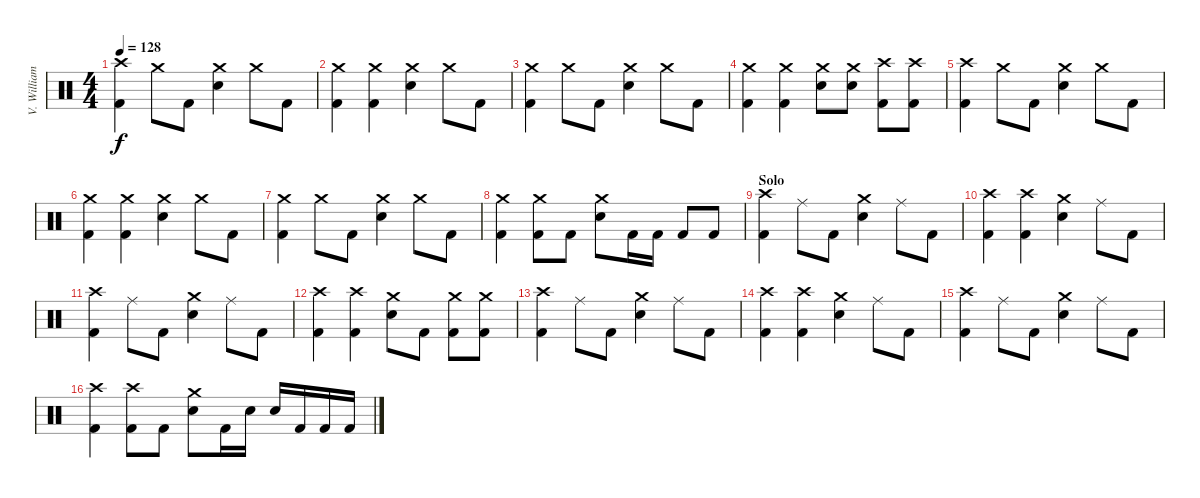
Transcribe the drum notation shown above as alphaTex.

\track ("V. Williams" "V. William") {instrument percussion}
\staff {score}
\articulation defaults
\ts (4 4)
\tempo 128
\clef neutral
\ks c
("Crash high (hit)" "Kick (hit) 2").4{dy f} "Crash medium (hit)".8 "Kick (hit) 2".8 ("Crash medium (hit)" "Electric Snare (hit)").4 "Crash medium (hit)".8 "Kick (hit) 2".8 |
("Crash medium (hit)" "Kick (hit) 2").4 ("Crash medium (hit)" "Kick (hit) 2").4 ("Crash medium (hit)" "Electric Snare (hit)").4 "Crash medium (hit)".8 "Kick (hit) 2".8 |
("Crash medium (hit)" "Kick (hit) 2").4 "Crash medium (hit)".8 "Kick (hit) 2".8 ("Crash medium (hit)" "Electric Snare (hit)").4 "Crash medium (hit)".8 "Kick (hit) 2".8 |
("Crash medium (hit)" "Kick (hit) 2").4 ("Crash medium (hit)" "Kick (hit) 2").4 ("Crash medium (hit)" "Electric Snare (hit)").8 ("Crash medium (hit)" "Electric Snare (hit)").8 ("Crash high (hit)" "Kick (hit) 2").8 ("Crash high (hit)" "Kick (hit) 2").8 |
("Crash high (hit)" "Kick (hit) 2").4 "Crash medium (hit)".8 "Kick (hit) 2".8 ("Crash medium (hit)" "Electric Snare (hit)").4 "Crash medium (hit)".8 "Kick (hit) 2".8 |
("Crash medium (hit)" "Kick (hit) 2").4 ("Crash medium (hit)" "Kick (hit) 2").4 ("Crash medium (hit)" "Electric Snare (hit)").4 "Crash medium (hit)".8 "Kick (hit) 2".8 |
("Crash medium (hit)" "Kick (hit) 2").4 "Crash medium (hit)".8 "Kick (hit) 2".8 ("Crash medium (hit)" "Electric Snare (hit)").4 "Crash medium (hit)".8 "Kick (hit) 2".8 |
("Crash medium (hit)" "Kick (hit) 2").4 ("Crash medium (hit)" "Kick (hit) 2").8 "Kick (hit) 2".8 ("Crash medium (hit)" "Electric Snare (hit)").8 "Kick (hit) 2".16 "Kick (hit) 2".16 "Kick (hit) 2".8 "Kick (hit) 2".8 |
\section ("" "Solo")
("Crash high (hit)" "Kick (hit) 2").4 "Ride (middle)".8 "Kick (hit) 2".8 ("Crash medium (hit)" "Electric Snare (hit)").4 "Ride (middle)".8 "Kick (hit) 2".8 |
("Crash high (hit)" "Kick (hit) 2").4 ("Crash high (hit)" "Kick (hit) 2").4 ("Crash medium (hit)" "Electric Snare (hit)").4 "Ride (middle)".8 "Kick (hit) 2".8 |
("Crash high (hit)" "Kick (hit) 2").4 "Ride (middle)".8 "Kick (hit) 2".8 ("Crash medium (hit)" "Electric Snare (hit)").4 "Ride (middle)".8 "Kick (hit) 2".8 |
("Crash high (hit)" "Kick (hit) 2").4 ("Crash high (hit)" "Kick (hit) 2").4 ("Crash medium (hit)" "Electric Snare (hit)").8 "Kick (hit) 2".8 ("Crash medium (hit)" "Kick (hit) 2").8 ("Crash medium (hit)" "Kick (hit) 2").8 |
("Crash high (hit)" "Kick (hit) 2").4 "Ride (middle)".8 "Kick (hit) 2".8 ("Crash medium (hit)" "Electric Snare (hit)").4 "Ride (middle)".8 "Kick (hit) 2".8 |
("Crash high (hit)" "Kick (hit) 2").4 ("Crash high (hit)" "Kick (hit) 2").4 ("Crash medium (hit)" "Electric Snare (hit)").4 "Ride (middle)".8 "Kick (hit) 2".8 |
("Crash high (hit)" "Kick (hit) 2").4 "Ride (middle)".8 "Kick (hit) 2".8 ("Crash medium (hit)" "Electric Snare (hit)").4 "Ride (middle)".8 "Kick (hit) 2".8 |
("Crash high (hit)" "Kick (hit) 2").4 ("Crash high (hit)" "Kick (hit) 2").8 "Kick (hit) 2".8 ("Crash medium (hit)" "Electric Snare (hit)").8 "Kick (hit) 2".16 "Electric Snare (hit)".16 "Electric Snare (hit)".16 "Kick (hit) 2".16 "Kick (hit) 2".16 "Kick (hit) 2".16
